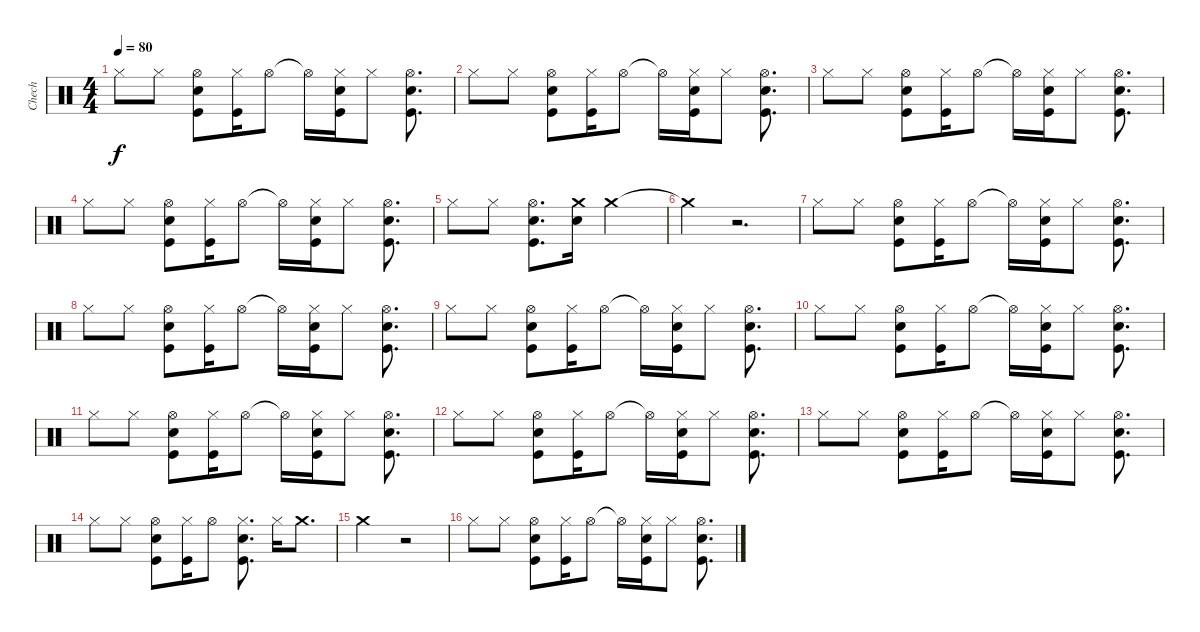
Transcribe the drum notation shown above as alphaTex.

\track ("Chech" "Chech") {instrument percussion}
\staff {score}
\articulation defaults
\ts (4 4)
\tempo 80
\clef neutral
\ks c "Hi-Hat (closed)".8{dy f} "Hi-Hat (closed)".8
("Hi-Hat (open)" "Electric Snare (hit)" "Kick (hit)").8 ("Hi-Hat (closed)" "Kick (hit)").16 "Hi-Hat (open)".8 "Hi-Hat (open)"{t}.16 ("Hi-Hat (closed)" "Electric Snare (hit)" "Kick (hit)").16 "Hi-Hat (closed)".8 ("Hi-Hat (open)" "Electric Snare (hit)" "Kick (hit)").8{d} |
"Hi-Hat (closed)".8 "Hi-Hat (closed)".8 ("Hi-Hat (open)" "Electric Snare (hit)" "Kick (hit)").8 ("Hi-Hat (closed)" "Kick (hit)").16 "Hi-Hat (open)".8 "Hi-Hat (open)"{t}.16 ("Hi-Hat (closed)" "Electric Snare (hit)" "Kick (hit)").16 "Hi-Hat (closed)".8 ("Hi-Hat (open)" "Electric Snare (hit)" "Kick (hit)").8{d} |
"Hi-Hat (closed)".8 "Hi-Hat (closed)".8 ("Hi-Hat (open)" "Electric Snare (hit)" "Kick (hit)").8 ("Hi-Hat (closed)" "Kick (hit)").16 "Hi-Hat (open)".8 "Hi-Hat (open)"{t}.16 ("Hi-Hat (closed)" "Electric Snare (hit)" "Kick (hit)").16 "Hi-Hat (closed)".8 ("Hi-Hat (open)" "Electric Snare (hit)" "Kick (hit)").8{d} |
"Hi-Hat (closed)".8 "Hi-Hat (closed)".8 ("Hi-Hat (open)" "Electric Snare (hit)" "Kick (hit)").8 ("Hi-Hat (closed)" "Kick (hit)").16 "Hi-Hat (open)".8 "Hi-Hat (open)"{t}.16 ("Hi-Hat (closed)" "Electric Snare (hit)" "Kick (hit)").16 "Hi-Hat (closed)".8 ("Hi-Hat (open)" "Electric Snare (hit)" "Kick (hit)").8{d} |
"Hi-Hat (closed)".8 "Hi-Hat (closed)".8 ("Hi-Hat (open)" "Electric Snare (hit)" "Kick (hit)").8{d} ("Crash medium (hit)" "Electric Snare (hit)").16 "Crash medium (hit)".2 |
"Crash medium (hit)"{t}.4 r.2{d} |
"Hi-Hat (closed)".8 "Hi-Hat (closed)".8 ("Hi-Hat (open)" "Electric Snare (hit)" "Kick (hit)").8 ("Hi-Hat (closed)" "Kick (hit)").16 "Hi-Hat (open)".8 "Hi-Hat (open)"{t}.16 ("Hi-Hat (closed)" "Electric Snare (hit)" "Kick (hit)").16 "Hi-Hat (closed)".8 ("Hi-Hat (open)" "Electric Snare (hit)" "Kick (hit)").8{d} |
"Hi-Hat (closed)".8 "Hi-Hat (closed)".8 ("Hi-Hat (open)" "Electric Snare (hit)" "Kick (hit)").8 ("Hi-Hat (closed)" "Kick (hit)").16 "Hi-Hat (open)".8 "Hi-Hat (open)"{t}.16 ("Hi-Hat (closed)" "Electric Snare (hit)" "Kick (hit)").16 "Hi-Hat (closed)".8 ("Hi-Hat (open)" "Electric Snare (hit)" "Kick (hit)").8{d} |
"Hi-Hat (closed)".8 "Hi-Hat (closed)".8 ("Hi-Hat (open)" "Electric Snare (hit)" "Kick (hit)").8 ("Hi-Hat (closed)" "Kick (hit)").16 "Hi-Hat (open)".8 "Hi-Hat (open)"{t}.16 ("Hi-Hat (closed)" "Electric Snare (hit)" "Kick (hit)").16 "Hi-Hat (closed)".8 ("Hi-Hat (open)" "Electric Snare (hit)" "Kick (hit)").8{d} |
"Hi-Hat (closed)".8 "Hi-Hat (closed)".8 ("Hi-Hat (open)" "Electric Snare (hit)" "Kick (hit)").8 ("Hi-Hat (closed)" "Kick (hit)").16 "Hi-Hat (open)".8 "Hi-Hat (open)"{t}.16 ("Hi-Hat (closed)" "Electric Snare (hit)" "Kick (hit)").16 "Hi-Hat (closed)".8 ("Hi-Hat (open)" "Electric Snare (hit)" "Kick (hit)").8{d} |
"Hi-Hat (closed)".8 "Hi-Hat (closed)".8 ("Hi-Hat (open)" "Electric Snare (hit)" "Kick (hit)").8 ("Hi-Hat (closed)" "Kick (hit)").16 "Hi-Hat (open)".8 "Hi-Hat (open)"{t}.16 ("Hi-Hat (closed)" "Electric Snare (hit)" "Kick (hit)").16 "Hi-Hat (closed)".8 ("Hi-Hat (open)" "Electric Snare (hit)" "Kick (hit)").8{d} |
"Hi-Hat (closed)".8 "Hi-Hat (closed)".8 ("Hi-Hat (open)" "Electric Snare (hit)" "Kick (hit)").8 ("Hi-Hat (closed)" "Kick (hit)").16 "Hi-Hat (open)".8 "Hi-Hat (open)"{t}.16 ("Hi-Hat (closed)" "Electric Snare (hit)" "Kick (hit)").16 "Hi-Hat (closed)".8 ("Hi-Hat (open)" "Electric Snare (hit)" "Kick (hit)").8{d} |
"Hi-Hat (closed)".8 "Hi-Hat (closed)".8 ("Hi-Hat (open)" "Electric Snare (hit)" "Kick (hit)").8 ("Hi-Hat (closed)" "Kick (hit)").16 "Hi-Hat (open)".8 "Hi-Hat (open)"{t}.16 ("Hi-Hat (closed)" "Electric Snare (hit)" "Kick (hit)").16 "Hi-Hat (closed)".8 ("Hi-Hat (open)" "Electric Snare (hit)" "Kick (hit)").8{d} |
"Hi-Hat (closed)".8 "Hi-Hat (closed)".8 ("Hi-Hat (open)" "Electric Snare (hit)" "Kick (hit)").8 ("Hi-Hat (closed)" "Kick (hit)").16 "Hi-Hat (open)".8 ("Hi-Hat (closed)" "Electric Snare (hit)" "Kick (hit)").8{d} "Hi-Hat (closed)".16 "Crash medium (hit)".8{d} |
"Crash medium (hit)".2 r.2 |
"Hi-Hat (closed)".8 "Hi-Hat (closed)".8 ("Hi-Hat (open)" "Electric Snare (hit)" "Kick (hit)").8 ("Hi-Hat (closed)" "Kick (hit)").16 "Hi-Hat (open)".8 "Hi-Hat (open)"{t}.16 ("Hi-Hat (closed)" "Electric Snare (hit)" "Kick (hit)").16 "Hi-Hat (closed)".8 ("Hi-Hat (open)" "Electric Snare (hit)" "Kick (hit)").8{d}
